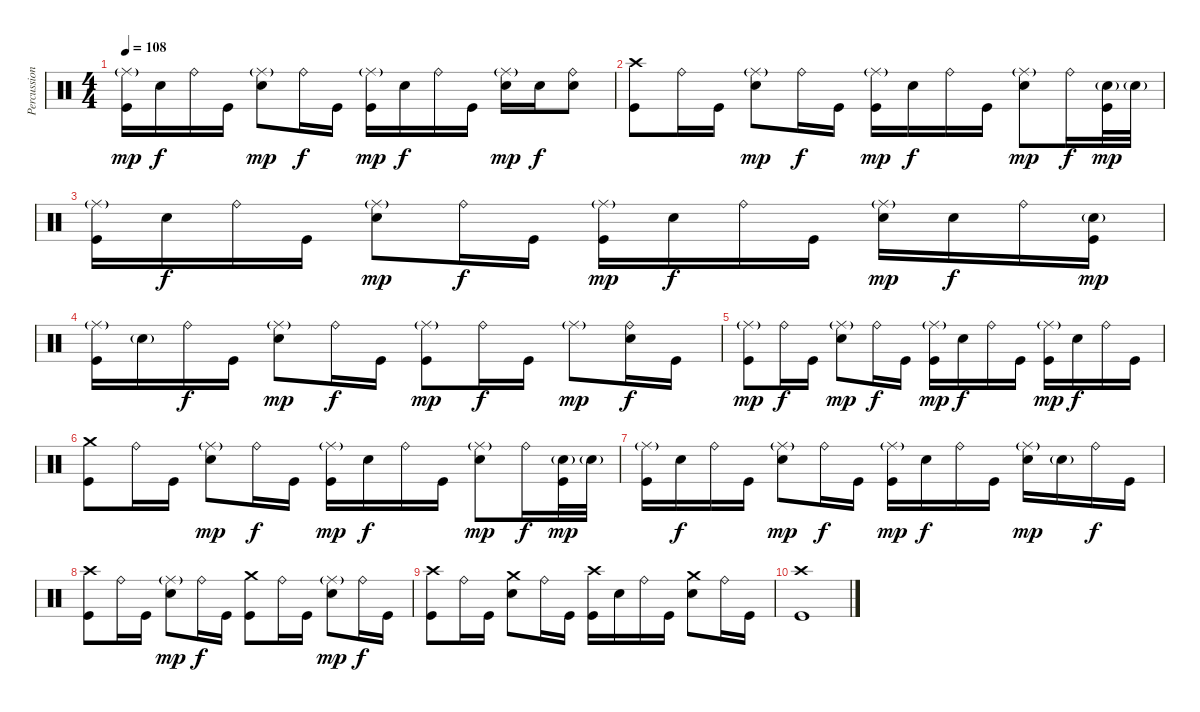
\track ("Percussion" "Percussion") {instrument percussion}
\staff {score}
\articulation defaults
\ts (4 4)
\tempo 108
\clef neutral
\ks c
("Ride (middle)"{g} "Kick (hit)").16{dy mp} "Electric Snare (hit)".16{dy f} "Ride (bell)".16 "Kick (hit)".16 ("Ride (middle)"{g} "Electric Snare (hit)").8{dy mp} "Ride (bell)".16{dy f} "Kick (hit)".16 ("Ride (middle)"{g} "Kick (hit)").16{dy mp} "Electric Snare (hit)".16{dy f} "Ride (bell)".16 "Kick (hit)".16 ("Ride (middle)"{g} "Electric Snare (hit)").16{dy mp} "Electric Snare (hit)".16{dy f} ("Ride (bell)" "Electric Snare (hit)").8 |
("Crash high (hit)" "Kick (hit)").8 "Ride (bell)".16 "Kick (hit)".16 ("Ride (middle)"{g} "Electric Snare (hit)").8{dy mp} "Ride (bell)".16{dy f} "Kick (hit)".16 ("Ride (middle)"{g} "Kick (hit)").16{dy mp} "Electric Snare (hit)".16{dy f} "Ride (bell)".16 "Kick (hit)".16 ("Ride (middle)"{g} "Electric Snare (hit)").8{dy mp} "Ride (bell)".16{dy f} ("Electric Snare (hit)"{g} "Kick (hit)").32{dy mp} "Electric Snare (hit)"{g}.32 |
("Ride (middle)"{g} "Kick (hit)").16 "Electric Snare (hit)".16{dy f} "Ride (bell)".16 "Kick (hit)".16 ("Ride (middle)"{g} "Electric Snare (hit)").8{dy mp} "Ride (bell)".16{dy f} "Kick (hit)".16 ("Ride (middle)"{g} "Kick (hit)").16{dy mp} "Electric Snare (hit)".16{dy f} "Ride (bell)".16 "Kick (hit)".16 ("Ride (middle)"{g} "Electric Snare (hit)").16{dy mp} "Electric Snare (hit)".16{dy f} "Ride (bell)".16 ("Electric Snare (hit)"{g} "Kick (hit)").16{dy mp} |
("Ride (middle)"{g} "Kick (hit)").16 "Electric Snare (hit)"{g}.16 "Ride (bell)".16{dy f} "Kick (hit)".16 ("Ride (middle)"{g} "Electric Snare (hit)").8{dy mp} "Ride (bell)".16{dy f} "Kick (hit)".16 ("Ride (middle)"{g} "Kick (hit)").8{dy mp} "Ride (bell)".16{dy f} "Kick (hit)".16 "Ride (middle)"{g}.8{dy mp} ("Ride (bell)" "Electric Snare (hit)").16{dy f} "Kick (hit)".16 |
("Ride (middle)"{g} "Kick (hit)").8{dy mp} "Ride (bell)".16{dy f} "Kick (hit)".16 ("Ride (middle)"{g} "Electric Snare (hit)").8{dy mp} "Ride (bell)".16{dy f} "Kick (hit)".16 ("Ride (middle)"{g} "Kick (hit)").16{dy mp} "Electric Snare (hit)".16{dy f} "Ride (bell)".16 "Kick (hit)".16 ("Ride (middle)"{g} "Kick (hit)").16{dy mp} "Electric Snare (hit)".16{dy f} "Ride (bell)".16 "Kick (hit)".16 |
("Crash medium (hit)" "Kick (hit)").8 "Ride (bell)".16 "Kick (hit)".16 ("Ride (middle)"{g} "Electric Snare (hit)").8{dy mp} "Ride (bell)".16{dy f} "Kick (hit)".16 ("Ride (middle)"{g} "Kick (hit)").16{dy mp} "Electric Snare (hit)".16{dy f} "Ride (bell)".16 "Kick (hit)".16 ("Ride (middle)"{g} "Electric Snare (hit)").8{dy mp} "Ride (bell)".16{dy f} ("Electric Snare (hit)"{g} "Kick (hit)").32{dy mp} "Electric Snare (hit)"{g}.32 |
("Ride (middle)"{g} "Kick (hit)").16 "Electric Snare (hit)".16{dy f} "Ride (bell)".16 "Kick (hit)".16 ("Ride (middle)"{g} "Electric Snare (hit)").8{dy mp} "Ride (bell)".16{dy f} "Kick (hit)".16 ("Ride (middle)"{g} "Kick (hit)").16{dy mp} "Electric Snare (hit)".16{dy f} "Ride (bell)".16 "Kick (hit)".16 ("Ride (middle)"{g} "Electric Snare (hit)").16{dy mp} "Electric Snare (hit)"{g}.16 "Ride (bell)".16{dy f} "Kick (hit)".16 |
("Crash high (hit)" "Kick (hit)").8 "Ride (bell)".16 "Kick (hit)".16 ("Ride (middle)"{g} "Electric Snare (hit)").8{dy mp} "Ride (bell)".16{dy f} "Kick (hit)".16 ("Crash medium (hit)" "Kick (hit)").8 "Ride (bell)".16 "Kick (hit)".16 ("Ride (middle)"{g} "Electric Snare (hit)").8{dy mp} "Ride (bell)".16{dy f} "Kick (hit)".16 |
("Crash high (hit)" "Kick (hit)").8 "Ride (bell)".16 "Kick (hit)".16 ("Crash medium (hit)" "Electric Snare (hit)").8 "Ride (bell)".16 "Kick (hit)".16 ("Crash high (hit)" "Kick (hit)").16 "Electric Snare (hit)".16 "Ride (bell)".16 "Kick (hit)".16 ("Crash medium (hit)" "Electric Snare (hit)").8 "Ride (bell)".16 "Kick (hit)".16 |
("Crash high (hit)" "Kick (hit)").1
